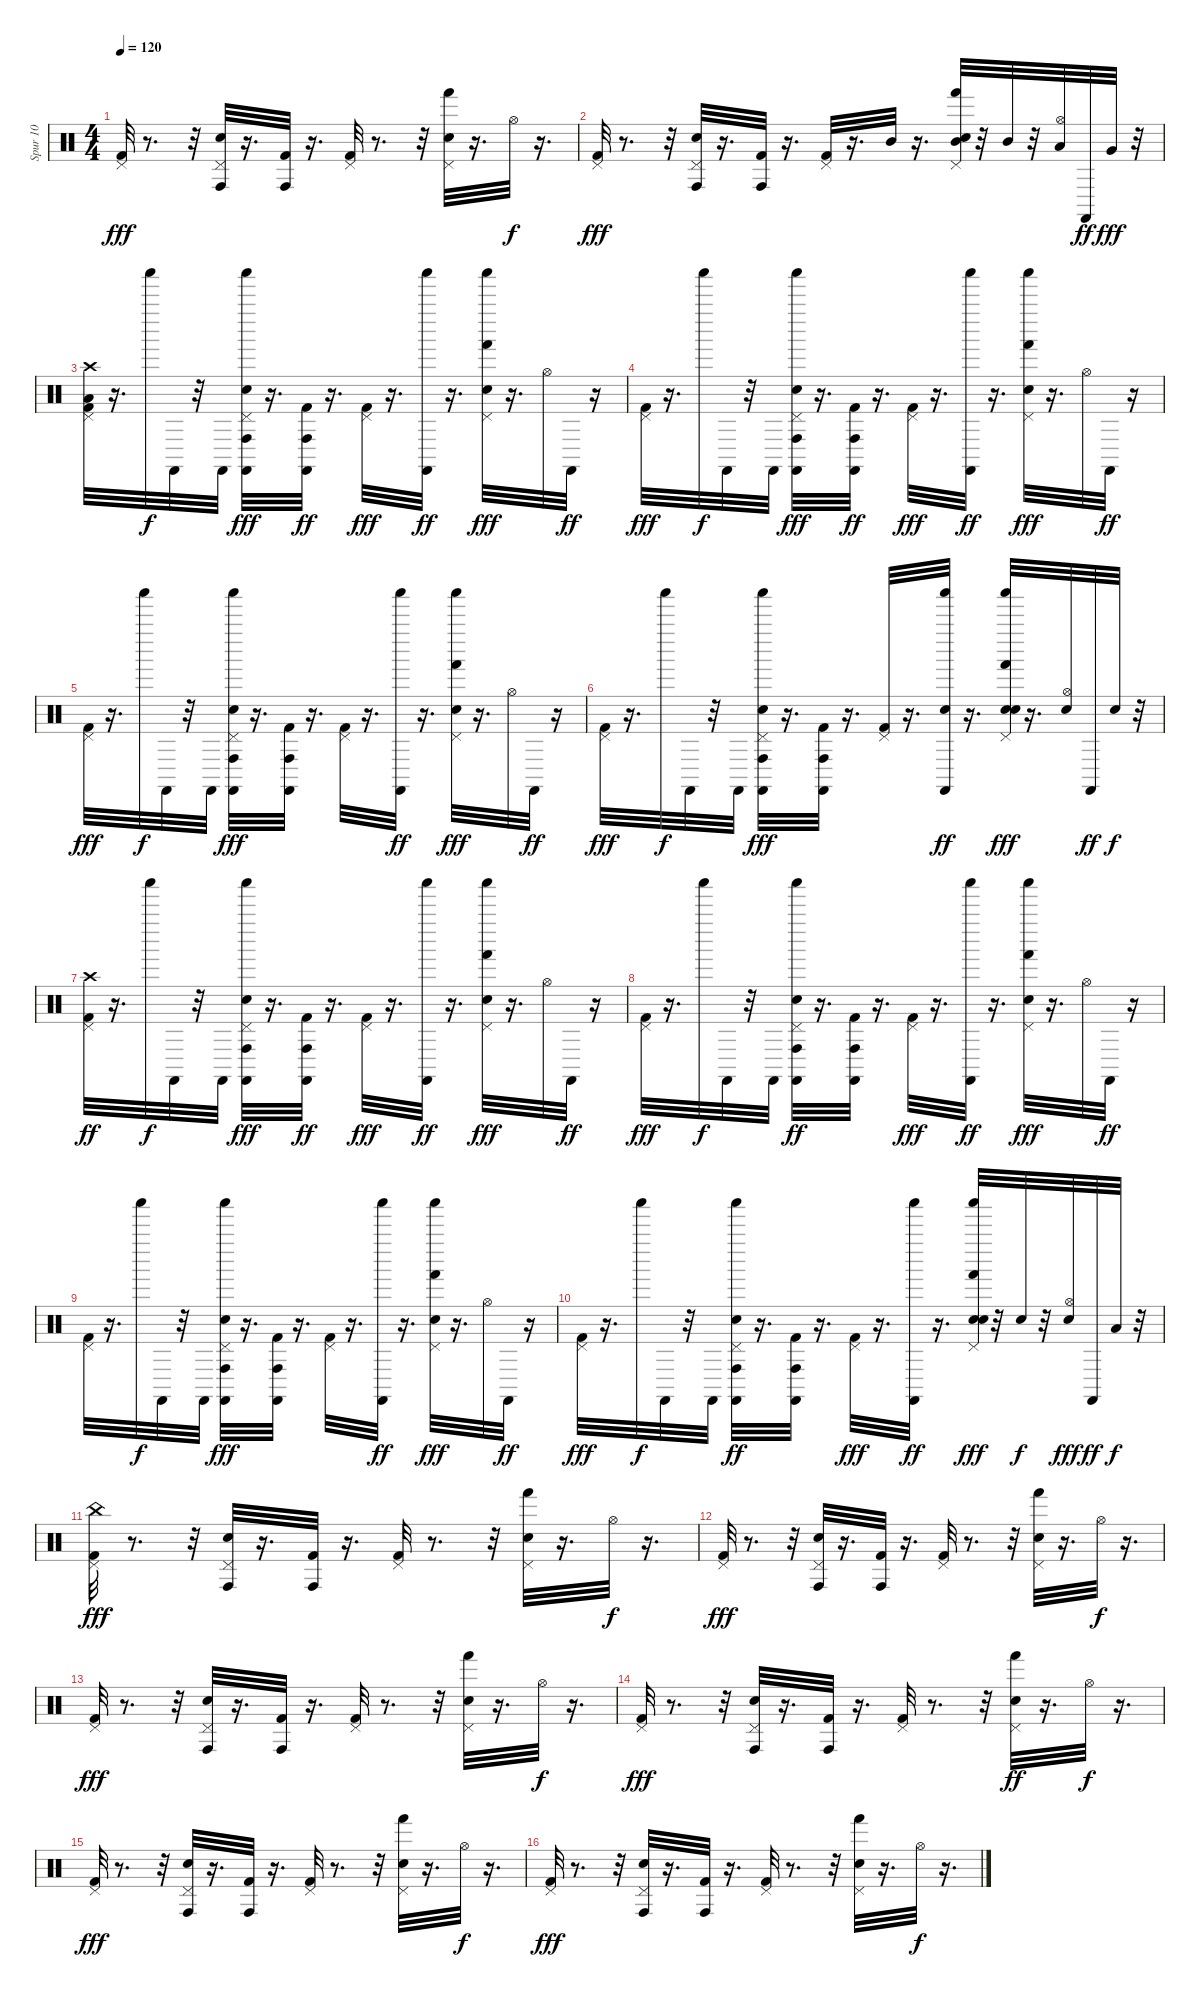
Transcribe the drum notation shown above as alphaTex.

\track ("Spur 10" "Spur 10") {instrument percussion}
\staff {score}
\articulation defaults
\ts (4 4)
\tempo 120
\clef neutral
\ks c
("Kick (hit) 2" "Pedal Hi-Hat (hit)").32{dy fff} r.8{d} r.32 ("Snare (hit) 2" "Conga high (hit)" "Pedal Hi-Hat (hit)").32 r.16{d} ("Kick (hit) 2" "Conga high (hit)").32 r.16{d} ("Pedal Hi-Hat (hit)" "Kick (hit) 2").32 r.8{d} r.32 ("Pedal Hi-Hat (hit)" "Hand (hit)" "Snare (hit) 2").32 r.16{d} "Hi-Hat (open)".32{dy f} r.16{d} |
("Kick (hit) 2" "Pedal Hi-Hat (hit)").32{dy fff} r.8{d} r.32 ("Conga high (hit)" "Pedal Hi-Hat (hit)" "Snare (hit) 2").32 r.16{d} ("Kick (hit) 2" "Conga high (hit)").32 r.16{d} ("Kick (hit) 2" "Pedal Hi-Hat (hit)").32 r.16{d} "Mid Tom (hit)".32 r.16{d} ("Mid Tom (hit)" "Hand (hit)" "Pedal Hi-Hat (hit)" "Snare (hit) 2").32 r.32 "Mid Tom (hit)".32 r.32 ("Low Tom (hit)" "Hi-Hat (open)").32 "Castanets (hit)".32{dy ff} "Very Low Tom (hit)".32{dy fff} r.32 |
("Crash high (hit)" "Low Floor Tom (hit)" "Pedal Hi-Hat (hit)" "Kick (hit) 2").32 r.16{d} "Shaker (hit)".32{dy f} "Castanets (hit)".32 r.32 "Castanets (hit)".32 ("Snare (hit) 2" "Shaker (hit)" "Castanets (hit)" "Conga high (hit)" "Pedal Hi-Hat (hit)").32{dy fff} r.16{d} ("Kick (hit) 2" "Conga high (hit)" "Castanets (hit)").32{dy ff} r.16{d} ("Pedal Hi-Hat (hit)" "Kick (hit) 2").32{dy fff} r.16{d} ("Shaker (hit)" "Castanets (hit)").32{dy ff} r.16{d} ("Snare (hit) 2" "Shaker (hit)" "Hand (hit)" "Pedal Hi-Hat (hit)").32{dy fff} r.16{d} "Hi-Hat (open)".32 "Castanets (hit)".32{dy ff} r.16 |
("Pedal Hi-Hat (hit)" "Kick (hit) 2").32{dy fff} r.16{d} "Shaker (hit)".32{dy f} "Castanets (hit)".32 r.32 "Castanets (hit)".32 ("Snare (hit) 2" "Conga high (hit)" "Shaker (hit)" "Castanets (hit)" "Pedal Hi-Hat (hit)").32{dy fff} r.16{d} ("Conga high (hit)" "Castanets (hit)" "Kick (hit) 2").32{dy ff} r.16{d} ("Pedal Hi-Hat (hit)" "Kick (hit) 2").32{dy fff} r.16{d} ("Castanets (hit)" "Shaker (hit)").32{dy ff} r.16{d} ("Hand (hit)" "Pedal Hi-Hat (hit)" "Shaker (hit)" "Snare (hit) 2").32{dy fff} r.16{d} "Hi-Hat (open)".32 "Castanets (hit)".32{dy ff} r.16 |
("Pedal Hi-Hat (hit)" "Kick (hit) 2").32{dy fff} r.16{d} "Shaker (hit)".32{dy f} "Castanets (hit)".32 r.32 "Castanets (hit)".32 ("Conga high (hit)" "Shaker (hit)" "Castanets (hit)" "Snare (hit) 2" "Pedal Hi-Hat (hit)").32{dy fff} r.16{d} ("Castanets (hit)" "Kick (hit) 2" "Conga high (hit)").32 r.16{d} ("Kick (hit) 2" "Pedal Hi-Hat (hit)").32 r.16{d} ("Shaker (hit)" "Castanets (hit)").32{dy ff} r.16{d} ("Snare (hit) 2" "Hand (hit)" "Shaker (hit)" "Pedal Hi-Hat (hit)").32{dy fff} r.16{d} "Hi-Hat (open)".32 "Castanets (hit)".32{dy ff} r.16 |
("Pedal Hi-Hat (hit)" "Kick (hit) 2").32{dy fff} r.16{d} "Shaker (hit)".32{dy f} "Castanets (hit)".32 r.32 "Castanets (hit)".32 ("Snare (hit) 2" "Pedal Hi-Hat (hit)" "Castanets (hit)" "Conga high (hit)" "Shaker (hit)").32{dy fff} r.16{d} ("Castanets (hit)" "Kick (hit) 2" "Conga high (hit)").32 r.16{d} ("Kick (hit) 2" "Pedal Hi-Hat (hit)").32 r.16{d} ("Electric Snare (hit)" "Castanets (hit)" "Shaker (hit)").32{dy ff} r.16{d} ("Electric Snare (hit)" "Snare (hit) 2" "Shaker (hit)" "Hand (hit)" "Pedal Hi-Hat (hit)").32{dy fff} r.16{d} ("Snare (hit) 2" "Hi-Hat (open)").32 "Castanets (hit)".32{dy ff} "Snare (hit) 2".32{dy f} r.32 |
("Crash high (hit)" "Kick (hit) 2" "Pedal Hi-Hat (hit)").32{dy ff} r.16{d} "Shaker (hit)".32{dy f} "Castanets (hit)".32 r.32 "Castanets (hit)".32 ("Snare (hit) 2" "Conga high (hit)" "Castanets (hit)" "Pedal Hi-Hat (hit)" "Shaker (hit)").32{dy fff} r.16{d} ("Castanets (hit)" "Conga high (hit)" "Kick (hit) 2").32{dy ff} r.16{d} ("Kick (hit) 2" "Pedal Hi-Hat (hit)").32{dy fff} r.16{d} ("Castanets (hit)" "Shaker (hit)").32{dy ff} r.16{d} ("Shaker (hit)" "Pedal Hi-Hat (hit)" "Snare (hit) 2" "Hand (hit)").32{dy fff} r.16{d} "Hi-Hat (open)".32 "Castanets (hit)".32{dy ff} r.16 |
("Pedal Hi-Hat (hit)" "Kick (hit) 2").32{dy fff} r.16{d} "Shaker (hit)".32{dy f} "Castanets (hit)".32 r.32 "Castanets (hit)".32 ("Pedal Hi-Hat (hit)" "Shaker (hit)" "Conga high (hit)" "Snare (hit) 2" "Castanets (hit)").32{dy ff} r.16{d} ("Conga high (hit)" "Castanets (hit)" "Kick (hit) 2").32 r.16{d} ("Kick (hit) 2" "Pedal Hi-Hat (hit)").32{dy fff} r.16{d} ("Shaker (hit)" "Castanets (hit)").32{dy ff} r.16{d} ("Hand (hit)" "Shaker (hit)" "Snare (hit) 2" "Pedal Hi-Hat (hit)").32{dy fff} r.16{d} "Hi-Hat (open)".32 "Castanets (hit)".32{dy ff} r.16 |
("Kick (hit) 2" "Pedal Hi-Hat (hit)").32 r.16{d} "Shaker (hit)".32{dy f} "Castanets (hit)".32 r.32 "Castanets (hit)".32 ("Conga high (hit)" "Pedal Hi-Hat (hit)" "Castanets (hit)" "Snare (hit) 2" "Shaker (hit)").32{dy fff} r.16{d} ("Castanets (hit)" "Kick (hit) 2" "Conga high (hit)").32 r.16{d} ("Pedal Hi-Hat (hit)" "Kick (hit) 2").32 r.16{d} ("Castanets (hit)" "Shaker (hit)").32{dy ff} r.16{d} ("Pedal Hi-Hat (hit)" "Hand (hit)" "Shaker (hit)" "Snare (hit) 2").32{dy fff} r.16{d} "Hi-Hat (open)".32 "Castanets (hit)".32{dy ff} r.16 |
("Pedal Hi-Hat (hit)" "Kick (hit) 2").32{dy fff} r.16{d} "Shaker (hit)".32{dy f} "Castanets (hit)".32 r.32 "Castanets (hit)".32 ("Snare (hit) 2" "Conga high (hit)" "Pedal Hi-Hat (hit)" "Shaker (hit)" "Castanets (hit)").32{dy ff} r.16{d} ("Conga high (hit)" "Castanets (hit)" "Kick (hit) 2").32 r.16{d} ("Kick (hit) 2" "Pedal Hi-Hat (hit)").32{dy fff} r.16{d} ("Shaker (hit)" "Castanets (hit)").32{dy ff} r.16{d} ("Electric Snare (hit)" "Hand (hit)" "Shaker (hit)" "Pedal Hi-Hat (hit)" "Snare (hit) 2").32{dy fff} r.32 "Electric Snare (hit)".32{dy f} r.32 ("Snare (hit) 2" "Hi-Hat (open)").32{dy fff} "Castanets (hit)".32{dy ff} "Low Tom (hit)".32{dy f} r.32 |
("China (hit)" "Pedal Hi-Hat (hit)" "Kick (hit) 2").32{dy fff} r.8{d} r.32 ("Pedal Hi-Hat (hit)" "Conga high (hit)" "Snare (hit) 2").32 r.16{d} ("Kick (hit) 2" "Conga high (hit)").32 r.16{d} ("Kick (hit) 2" "Pedal Hi-Hat (hit)").32 r.8{d} r.32 ("Hand (hit)" "Pedal Hi-Hat (hit)" "Snare (hit) 2").32 r.16{d} "Hi-Hat (open)".32{dy f} r.16{d} |
("Kick (hit) 2" "Pedal Hi-Hat (hit)").32{dy fff} r.8{d} r.32 ("Pedal Hi-Hat (hit)" "Snare (hit) 2" "Conga high (hit)").32 r.16{d} ("Kick (hit) 2" "Conga high (hit)").32 r.16{d} ("Kick (hit) 2" "Pedal Hi-Hat (hit)").32 r.8{d} r.32 ("Hand (hit)" "Snare (hit) 2" "Pedal Hi-Hat (hit)").32 r.16{d} "Hi-Hat (open)".32{dy f} r.16{d} |
("Pedal Hi-Hat (hit)" "Kick (hit) 2").32{dy fff} r.8{d} r.32 ("Pedal Hi-Hat (hit)" "Conga high (hit)" "Snare (hit) 2").32 r.16{d} ("Conga high (hit)" "Kick (hit) 2").32 r.16{d} ("Kick (hit) 2" "Pedal Hi-Hat (hit)").32 r.8{d} r.32 ("Snare (hit) 2" "Hand (hit)" "Pedal Hi-Hat (hit)").32 r.16{d} "Hi-Hat (open)".32{dy f} r.16{d} |
("Pedal Hi-Hat (hit)" "Kick (hit) 2").32{dy fff} r.8{d} r.32 ("Snare (hit) 2" "Pedal Hi-Hat (hit)" "Conga high (hit)").32 r.16{d} ("Conga high (hit)" "Kick (hit) 2").32 r.16{d} ("Pedal Hi-Hat (hit)" "Kick (hit) 2").32 r.8{d} r.32 ("Snare (hit) 2" "Pedal Hi-Hat (hit)" "Hand (hit)").32{dy ff} r.16{d} "Hi-Hat (open)".32{dy f} r.16{d} |
("Pedal Hi-Hat (hit)" "Kick (hit) 2").32{dy fff} r.8{d} r.32 ("Snare (hit) 2" "Pedal Hi-Hat (hit)" "Conga high (hit)").32 r.16{d} ("Kick (hit) 2" "Conga high (hit)").32 r.16{d} ("Kick (hit) 2" "Pedal Hi-Hat (hit)").32 r.8{d} r.32 ("Pedal Hi-Hat (hit)" "Hand (hit)" "Snare (hit) 2").32 r.16{d} "Hi-Hat (open)".32{dy f} r.16{d} |
("Pedal Hi-Hat (hit)" "Kick (hit) 2").32{dy fff} r.8{d} r.32 ("Pedal Hi-Hat (hit)" "Snare (hit) 2" "Conga high (hit)").32 r.16{d} ("Kick (hit) 2" "Conga high (hit)").32 r.16{d} ("Kick (hit) 2" "Pedal Hi-Hat (hit)").32 r.8{d} r.32 ("Pedal Hi-Hat (hit)" "Hand (hit)" "Snare (hit) 2").32 r.16{d} "Hi-Hat (open)".32{dy f} r.16{d}
